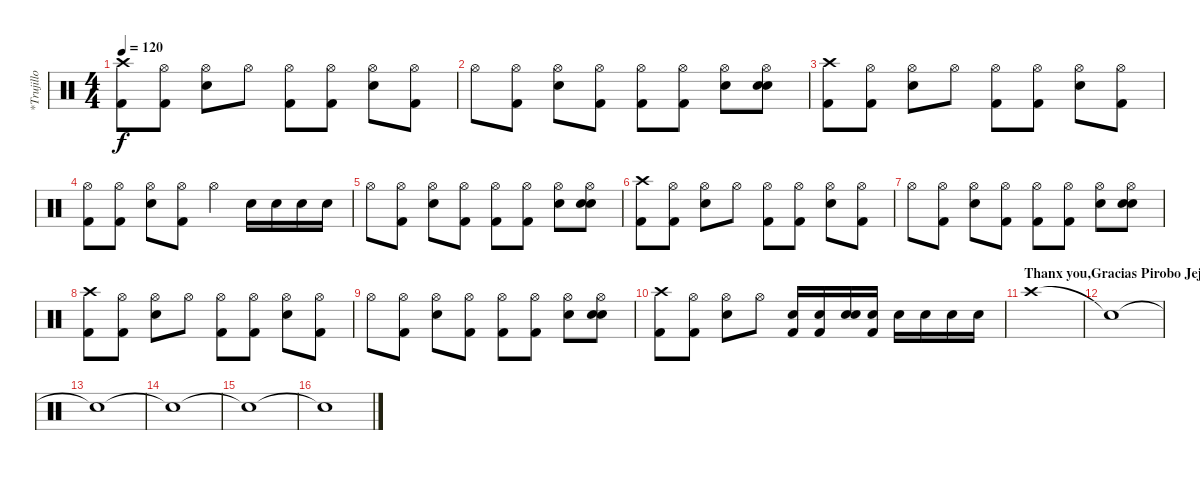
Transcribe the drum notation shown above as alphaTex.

\track ("*Trujillo" "*Trujillo") {instrument percussion}
\staff {score}
\articulation defaults
\ts (4 4)
\tempo 120
\clef neutral
\ks c
("Crash high (hit)" "Kick (hit) 2").8{dy f} ("Hi-Hat (open)" "Kick (hit) 2").8 ("Hi-Hat (open)" "Electric Snare (hit)").8 "Hi-Hat (open)".8 ("Hi-Hat (open)" "Kick (hit) 2").8 ("Hi-Hat (open)" "Kick (hit) 2").8 ("Hi-Hat (open)" "Electric Snare (hit)").8 ("Hi-Hat (open)" "Kick (hit) 2").8 |
"Hi-Hat (open)".8 ("Hi-Hat (open)" "Kick (hit) 2").8 ("Hi-Hat (open)" "Electric Snare (hit)").8 ("Hi-Hat (open)" "Kick (hit) 2"{x}).8 ("Hi-Hat (open)" "Kick (hit) 2").8 ("Hi-Hat (open)" "Kick (hit) 2").8 ("Hi-Hat (open)" "Electric Snare (hit)").8 ("Hi-Hat (open)" "Snare (hit)" "Electric Snare (hit)"{x}).8 |
("Crash high (hit)" "Kick (hit) 2").8 ("Hi-Hat (open)" "Kick (hit) 2").8 ("Hi-Hat (open)" "Electric Snare (hit)").8 "Hi-Hat (open)".8 ("Hi-Hat (open)" "Kick (hit) 2").8 ("Hi-Hat (open)" "Kick (hit) 2").8 ("Hi-Hat (open)" "Electric Snare (hit)").8 ("Hi-Hat (open)" "Kick (hit) 2").8 |
("Hi-Hat (open)" "Kick (hit) 2").8 ("Hi-Hat (open)" "Kick (hit) 2").8 ("Hi-Hat (open)" "Electric Snare (hit)").8 ("Hi-Hat (open)" "Kick (hit) 2").8 "Hi-Hat (open)".4 "Electric Snare (hit)".16 "Electric Snare (hit)".16 "Electric Snare (hit)".16 "Electric Snare (hit)".16 |
"Hi-Hat (open)".8 ("Hi-Hat (open)" "Kick (hit) 2").8 ("Hi-Hat (open)" "Electric Snare (hit)").8 ("Hi-Hat (open)" "Kick (hit) 2"{x}).8 ("Hi-Hat (open)" "Kick (hit) 2").8 ("Hi-Hat (open)" "Kick (hit) 2").8 ("Hi-Hat (open)" "Electric Snare (hit)").8 ("Hi-Hat (open)" "Snare (hit)" "Electric Snare (hit)"{x}).8 |
("Crash high (hit)" "Kick (hit) 2").8 ("Hi-Hat (open)" "Kick (hit) 2").8 ("Hi-Hat (open)" "Electric Snare (hit)").8 "Hi-Hat (open)".8 ("Hi-Hat (open)" "Kick (hit) 2").8 ("Hi-Hat (open)" "Kick (hit) 2").8 ("Hi-Hat (open)" "Electric Snare (hit)").8 ("Hi-Hat (open)" "Kick (hit) 2").8 |
"Hi-Hat (open)".8 ("Hi-Hat (open)" "Kick (hit) 2").8 ("Hi-Hat (open)" "Electric Snare (hit)").8 ("Hi-Hat (open)" "Kick (hit) 2"{x}).8 ("Hi-Hat (open)" "Kick (hit) 2").8 ("Hi-Hat (open)" "Kick (hit) 2").8 ("Hi-Hat (open)" "Electric Snare (hit)").8 ("Hi-Hat (open)" "Snare (hit)" "Electric Snare (hit)"{x}).8 |
("Crash high (hit)" "Kick (hit) 2").8 ("Hi-Hat (open)" "Kick (hit) 2").8 ("Hi-Hat (open)" "Electric Snare (hit)").8 "Hi-Hat (open)".8 ("Hi-Hat (open)" "Kick (hit) 2").8 ("Hi-Hat (open)" "Kick (hit) 2").8 ("Hi-Hat (open)" "Electric Snare (hit)").8 ("Hi-Hat (open)" "Kick (hit) 2").8 |
"Hi-Hat (open)".8 ("Hi-Hat (open)" "Kick (hit) 2").8 ("Hi-Hat (open)" "Electric Snare (hit)").8 ("Hi-Hat (open)" "Kick (hit) 2"{x}).8 ("Hi-Hat (open)" "Kick (hit) 2").8 ("Hi-Hat (open)" "Kick (hit) 2").8 ("Hi-Hat (open)" "Electric Snare (hit)").8 ("Hi-Hat (open)" "Snare (hit)" "Electric Snare (hit)"{x}).8 |
("Crash high (hit)" "Kick (hit) 2").8 ("Hi-Hat (open)" "Kick (hit) 2").8 ("Hi-Hat (open)" "Electric Snare (hit)").8 "Hi-Hat (open)".8 ("Electric Snare (hit)" "Kick (hit) 2").16 ("Electric Snare (hit)" "Kick (hit) 2").16 ("Electric Snare (hit)" "Electric Snare (hit)").16 ("Electric Snare (hit)" "Kick (hit) 2").16 "Electric Snare (hit)".16 "Electric Snare (hit)".16 "Electric Snare (hit)".16 "Electric Snare (hit)".16 |
\section ("" "Thanx you,Gracias Pirobo Jeje")
"Crash high (hit)".1 |
"Snare (hit)"{t}.1 |
"Snare (hit)"{t}.1 |
"Snare (hit)"{t}.1 |
"Snare (hit)"{t}.1 |
"Snare (hit)"{t}.1
